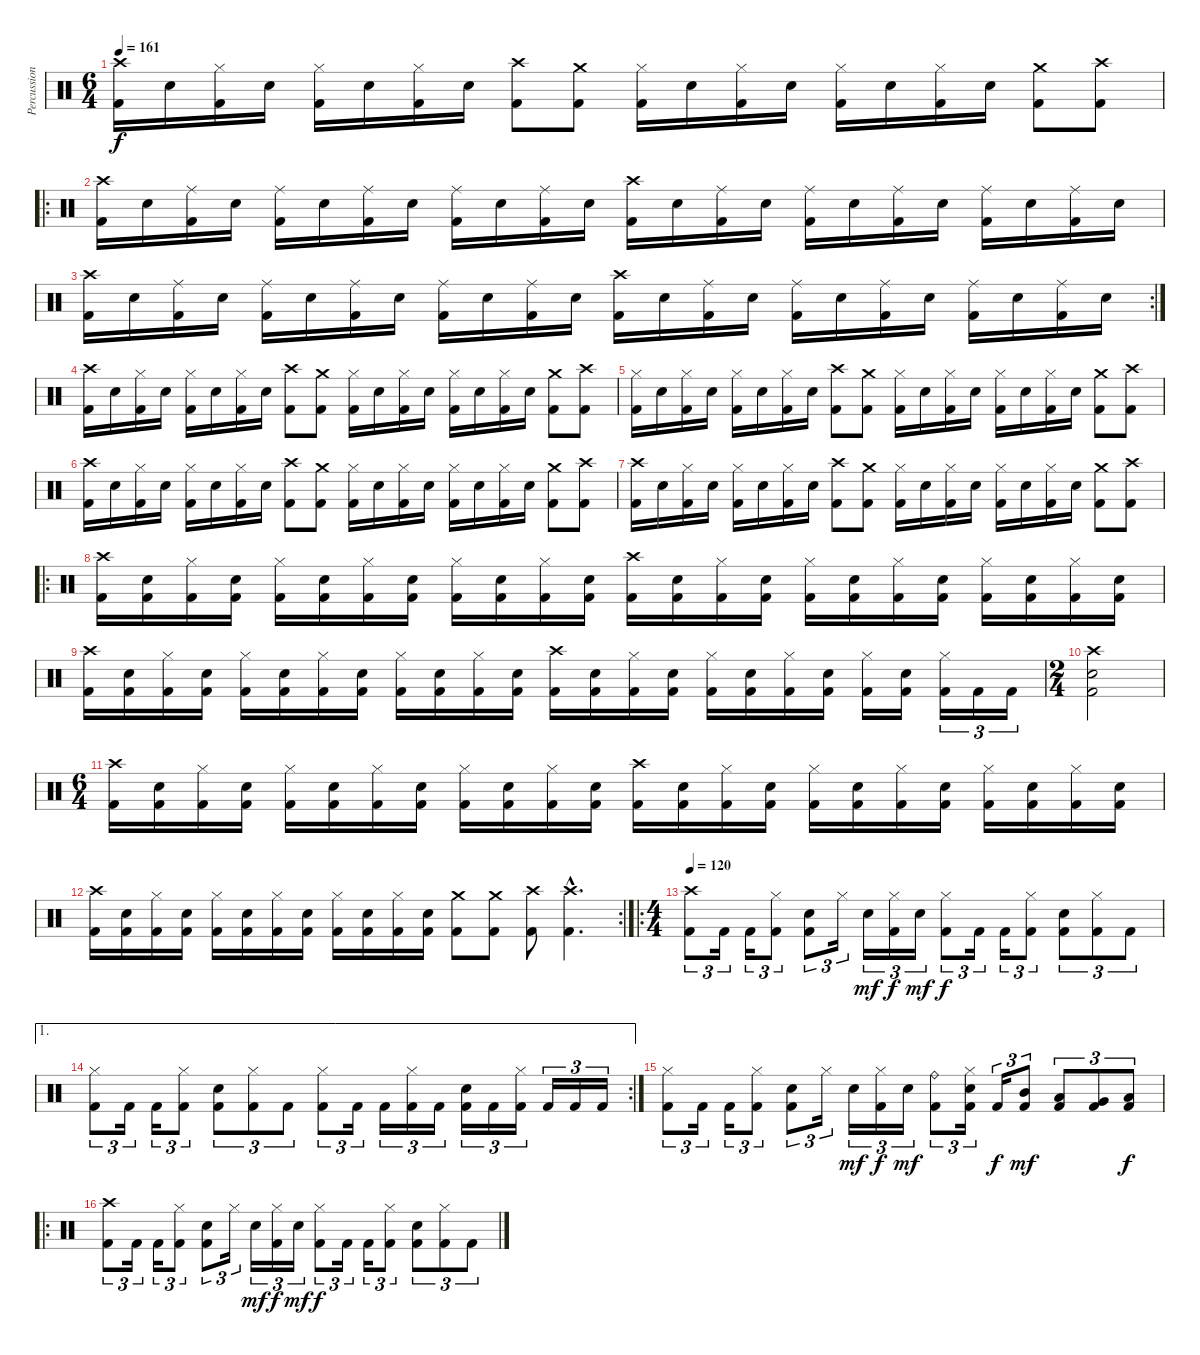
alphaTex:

\track ("Percussion" "Percussion") {instrument percussion}
\staff {score}
\articulation defaults
\ts (6 4)
\tempo 161
\clef neutral
\ks c
("Crash high (hit)" "Kick (hit) 2").16{dy f} "Snare (hit) 2".16 ("Hi-Hat (closed)" "Kick (hit) 2").16 "Snare (hit) 2".16 ("Hi-Hat (closed)" "Kick (hit) 2").16 "Snare (hit) 2".16 ("Hi-Hat (closed)" "Kick (hit) 2").16 "Snare (hit) 2".16 ("Crash high (hit)" "Kick (hit) 2").8 ("Crash medium (hit)" "Kick (hit) 2").8 ("Hi-Hat (closed)" "Kick (hit) 2").16 "Snare (hit) 2".16 ("Hi-Hat (closed)" "Kick (hit) 2").16 "Snare (hit) 2".16 ("Hi-Hat (closed)" "Kick (hit) 2").16 "Snare (hit) 2".16 ("Hi-Hat (closed)" "Kick (hit) 2").16 "Snare (hit) 2".16 ("Crash medium (hit)" "Kick (hit) 2").8 ("Crash high (hit)" "Kick (hit) 2").8 |
\ro
("Crash high (hit)" "Kick (hit) 2").16 "Snare (hit) 2".16 ("Ride (middle)" "Kick (hit) 2").16 "Snare (hit) 2".16 ("Ride (middle)" "Kick (hit) 2").16 "Snare (hit) 2".16 ("Ride (middle)" "Kick (hit) 2").16 "Snare (hit) 2".16 ("Ride (middle)" "Kick (hit) 2").16 "Snare (hit) 2".16 ("Ride (middle)" "Kick (hit) 2").16 "Snare (hit) 2".16 ("Crash high (hit)" "Kick (hit) 2").16 "Snare (hit) 2".16 ("Ride (middle)" "Kick (hit) 2").16 "Snare (hit) 2".16 ("Ride (middle)" "Kick (hit) 2").16 "Snare (hit) 2".16 ("Ride (middle)" "Kick (hit) 2").16 "Snare (hit) 2".16 ("Ride (middle)" "Kick (hit) 2").16 "Snare (hit) 2".16 ("Ride (middle)" "Kick (hit) 2").16 "Snare (hit) 2".16 |
\rc 2
("Crash high (hit)" "Kick (hit) 2").16 "Snare (hit) 2".16 ("Ride (middle)" "Kick (hit) 2").16 "Snare (hit) 2".16 ("Ride (middle)" "Kick (hit) 2").16 "Snare (hit) 2".16 ("Ride (middle)" "Kick (hit) 2").16 "Snare (hit) 2".16 ("Ride (middle)" "Kick (hit) 2").16 "Snare (hit) 2".16 ("Ride (middle)" "Kick (hit) 2").16 "Snare (hit) 2".16 ("Crash high (hit)" "Kick (hit) 2").16 "Snare (hit) 2".16 ("Ride (middle)" "Kick (hit) 2").16 "Snare (hit) 2".16 ("Ride (middle)" "Kick (hit) 2").16 "Snare (hit) 2".16 ("Ride (middle)" "Kick (hit) 2").16 "Snare (hit) 2".16 ("Ride (middle)" "Kick (hit) 2").16 "Snare (hit) 2".16 ("Ride (middle)" "Kick (hit) 2").16 "Snare (hit) 2".16 |
("Crash high (hit)" "Kick (hit) 2").16 "Snare (hit) 2".16 ("Hi-Hat (closed)" "Kick (hit) 2").16 "Snare (hit) 2".16 ("Hi-Hat (closed)" "Kick (hit) 2").16 "Snare (hit) 2".16 ("Hi-Hat (closed)" "Kick (hit) 2").16 "Snare (hit) 2".16 ("Crash high (hit)" "Kick (hit) 2").8 ("Crash medium (hit)" "Kick (hit) 2").8 ("Hi-Hat (closed)" "Kick (hit) 2").16 "Snare (hit) 2".16 ("Hi-Hat (closed)" "Kick (hit) 2").16 "Snare (hit) 2".16 ("Hi-Hat (closed)" "Kick (hit) 2").16 "Snare (hit) 2".16 ("Hi-Hat (closed)" "Kick (hit) 2").16 "Snare (hit) 2".16 ("Crash medium (hit)" "Kick (hit) 2").8 ("Crash high (hit)" "Kick (hit) 2").8 |
("Hi-Hat (closed)" "Kick (hit) 2").16 "Snare (hit) 2".16 ("Hi-Hat (closed)" "Kick (hit) 2").16 "Snare (hit) 2".16 ("Hi-Hat (closed)" "Kick (hit) 2").16 "Snare (hit) 2".16 ("Hi-Hat (closed)" "Kick (hit) 2").16 "Snare (hit) 2".16 ("Crash high (hit)" "Kick (hit) 2").8 ("Crash medium (hit)" "Kick (hit) 2").8 ("Hi-Hat (closed)" "Kick (hit) 2").16 "Snare (hit) 2".16 ("Hi-Hat (closed)" "Kick (hit) 2").16 "Snare (hit) 2".16 ("Hi-Hat (closed)" "Kick (hit) 2").16 "Snare (hit) 2".16 ("Hi-Hat (closed)" "Kick (hit) 2").16 "Snare (hit) 2".16 ("Crash medium (hit)" "Kick (hit) 2").8 ("Crash high (hit)" "Kick (hit) 2").8 |
("Crash high (hit)" "Kick (hit) 2").16 "Snare (hit) 2".16 ("Hi-Hat (closed)" "Kick (hit) 2").16 "Snare (hit) 2".16 ("Hi-Hat (closed)" "Kick (hit) 2").16 "Snare (hit) 2".16 ("Hi-Hat (closed)" "Kick (hit) 2").16 "Snare (hit) 2".16 ("Crash high (hit)" "Kick (hit) 2").8 ("Crash medium (hit)" "Kick (hit) 2").8 ("Hi-Hat (closed)" "Kick (hit) 2").16 "Snare (hit) 2".16 ("Hi-Hat (closed)" "Kick (hit) 2").16 "Snare (hit) 2".16 ("Hi-Hat (closed)" "Kick (hit) 2").16 "Snare (hit) 2".16 ("Hi-Hat (closed)" "Kick (hit) 2").16 "Snare (hit) 2".16 ("Crash medium (hit)" "Kick (hit) 2").8 ("Crash high (hit)" "Kick (hit) 2").8 |
("Crash high (hit)" "Kick (hit) 2").16 "Snare (hit) 2".16 ("Hi-Hat (closed)" "Kick (hit) 2").16 "Snare (hit) 2".16 ("Hi-Hat (closed)" "Kick (hit) 2").16 "Snare (hit) 2".16 ("Hi-Hat (closed)" "Kick (hit) 2").16 "Snare (hit) 2".16 ("Crash high (hit)" "Kick (hit) 2").8 ("Crash medium (hit)" "Kick (hit) 2").8 ("Hi-Hat (closed)" "Kick (hit) 2").16 "Snare (hit) 2".16 ("Hi-Hat (closed)" "Kick (hit) 2").16 "Snare (hit) 2".16 ("Hi-Hat (closed)" "Kick (hit) 2").16 "Snare (hit) 2".16 ("Hi-Hat (closed)" "Kick (hit) 2").16 "Snare (hit) 2".16 ("Crash medium (hit)" "Kick (hit) 2").8 ("Crash high (hit)" "Kick (hit) 2").8 |
\ro
("Crash high (hit)" "Kick (hit) 2").16 ("Snare (hit) 2" "Kick (hit) 2").16 ("Hi-Hat (closed)" "Kick (hit) 2").16 ("Snare (hit) 2" "Kick (hit) 2").16 ("Hi-Hat (closed)" "Kick (hit) 2").16 ("Snare (hit) 2" "Kick (hit) 2").16 ("Hi-Hat (closed)" "Kick (hit) 2").16 ("Snare (hit) 2" "Kick (hit) 2").16 ("Hi-Hat (closed)" "Kick (hit) 2").16 ("Snare (hit) 2" "Kick (hit) 2").16 ("Hi-Hat (closed)" "Kick (hit) 2").16 ("Snare (hit) 2" "Kick (hit) 2").16 ("Crash high (hit)" "Kick (hit) 2").16 ("Snare (hit) 2" "Kick (hit) 2").16 ("Hi-Hat (closed)" "Kick (hit) 2").16 ("Snare (hit) 2" "Kick (hit) 2").16 ("Hi-Hat (closed)" "Kick (hit) 2").16 ("Snare (hit) 2" "Kick (hit) 2").16 ("Hi-Hat (closed)" "Kick (hit) 2").16 ("Snare (hit) 2" "Kick (hit) 2").16 ("Hi-Hat (closed)" "Kick (hit) 2").16 ("Snare (hit) 2" "Kick (hit) 2").16 ("Hi-Hat (closed)" "Kick (hit) 2").16 ("Snare (hit) 2" "Kick (hit) 2").16 |
("Crash high (hit)" "Kick (hit) 2").16 ("Snare (hit) 2" "Kick (hit) 2").16 ("Hi-Hat (closed)" "Kick (hit) 2").16 ("Snare (hit) 2" "Kick (hit) 2").16 ("Hi-Hat (closed)" "Kick (hit) 2").16 ("Snare (hit) 2" "Kick (hit) 2").16 ("Hi-Hat (closed)" "Kick (hit) 2").16 ("Snare (hit) 2" "Kick (hit) 2").16 ("Hi-Hat (closed)" "Kick (hit) 2").16 ("Snare (hit) 2" "Kick (hit) 2").16 ("Hi-Hat (closed)" "Kick (hit) 2").16 ("Snare (hit) 2" "Kick (hit) 2").16 ("Crash high (hit)" "Kick (hit) 2").16 ("Snare (hit) 2" "Kick (hit) 2").16 ("Hi-Hat (closed)" "Kick (hit) 2").16 ("Snare (hit) 2" "Kick (hit) 2").16 ("Hi-Hat (closed)" "Kick (hit) 2").16 ("Snare (hit) 2" "Kick (hit) 2").16 ("Hi-Hat (closed)" "Kick (hit) 2").16 ("Snare (hit) 2" "Kick (hit) 2").16 ("Hi-Hat (closed)" "Kick (hit) 2").16 ("Snare (hit) 2" "Kick (hit) 2").16 ("Hi-Hat (closed)" "Kick (hit) 2").16{tu (3 2)} "Kick (hit) 2".16{tu (3 2)} "Kick (hit) 2".16{tu (3 2)} |
\ts (2 4)
("Crash high (hit)" "Snare (hit) 2" "Kick (hit) 2").2 |
\ts (6 4)
("Crash high (hit)" "Kick (hit) 2").16 ("Snare (hit) 2" "Kick (hit) 2").16 ("Hi-Hat (closed)" "Kick (hit) 2").16 ("Snare (hit) 2" "Kick (hit) 2").16 ("Hi-Hat (closed)" "Kick (hit) 2").16 ("Snare (hit) 2" "Kick (hit) 2").16 ("Hi-Hat (closed)" "Kick (hit) 2").16 ("Snare (hit) 2" "Kick (hit) 2").16 ("Hi-Hat (closed)" "Kick (hit) 2").16 ("Snare (hit) 2" "Kick (hit) 2").16 ("Hi-Hat (closed)" "Kick (hit) 2").16 ("Snare (hit) 2" "Kick (hit) 2").16 ("Crash high (hit)" "Kick (hit) 2").16 ("Snare (hit) 2" "Kick (hit) 2").16 ("Hi-Hat (closed)" "Kick (hit) 2").16 ("Snare (hit) 2" "Kick (hit) 2").16 ("Hi-Hat (closed)" "Kick (hit) 2").16 ("Snare (hit) 2" "Kick (hit) 2").16 ("Hi-Hat (closed)" "Kick (hit) 2").16 ("Snare (hit) 2" "Kick (hit) 2").16 ("Hi-Hat (closed)" "Kick (hit) 2").16 ("Snare (hit) 2" "Kick (hit) 2").16 ("Hi-Hat (closed)" "Kick (hit) 2").16 ("Snare (hit) 2" "Kick (hit) 2").16 |
\rc 2
("Crash high (hit)" "Kick (hit) 2").16 ("Snare (hit) 2" "Kick (hit) 2").16 ("Hi-Hat (closed)" "Kick (hit) 2").16 ("Snare (hit) 2" "Kick (hit) 2").16 ("Hi-Hat (closed)" "Kick (hit) 2").16 ("Snare (hit) 2" "Kick (hit) 2").16 ("Hi-Hat (closed)" "Kick (hit) 2").16 ("Snare (hit) 2" "Kick (hit) 2").16 ("Hi-Hat (closed)" "Kick (hit) 2").16 ("Snare (hit) 2" "Kick (hit) 2").16 ("Hi-Hat (closed)" "Kick (hit) 2").16 ("Snare (hit) 2" "Kick (hit) 2").16 ("Crash medium (hit)" "Kick (hit) 2").8 ("Crash medium (hit)" "Kick (hit) 2").8 ("Crash high (hit)" "Kick (hit) 2").8 ("Crash high (hit)"{hac} "Kick (hit) 2"{hac}).4{d} |
\ro
\ts (4 4)
\tempo 120
("Crash high (hit)" "Kick (hit) 2").8{tu (3 2)} "Kick (hit) 2".16{tu (3 2)} "Kick (hit) 2".16{tu (3 2)} ("Hi-Hat (closed)" "Kick (hit) 2").8{tu (3 2)} ("Snare (hit) 2" "Kick (hit) 2").8{tu (3 2)} "Hi-Hat (closed)".16{tu (3 2)} "Snare (hit) 2".16{tu (3 2) dy mf} ("Hi-Hat (closed)" "Kick (hit) 2").16{tu (3 2) dy f} "Snare (hit) 2".16{tu (3 2) dy mf} ("Hi-Hat (closed)" "Kick (hit) 2").8{tu (3 2) dy f} "Kick (hit) 2".16{tu (3 2)} "Kick (hit) 2".16{tu (3 2)} ("Hi-Hat (closed)" "Kick (hit) 2").8{tu (3 2)} ("Snare (hit) 2" "Kick (hit) 2").8{tu (3 2)} ("Hi-Hat (closed)" "Kick (hit) 2").8{tu (3 2)} "Kick (hit) 2".8{tu (3 2)} |
\ae 1
\rc 2
("Hi-Hat (closed)" "Kick (hit) 2").8{tu (3 2)} "Kick (hit) 2".16{tu (3 2)} "Kick (hit) 2".16{tu (3 2)} ("Hi-Hat (closed)" "Kick (hit) 2").8{tu (3 2)} ("Snare (hit) 2" "Kick (hit) 2").8{tu (3 2)} ("Hi-Hat (closed)" "Kick (hit) 2").8{tu (3 2)} "Kick (hit) 2".8{tu (3 2)} ("Hi-Hat (closed)" "Kick (hit) 2").8{tu (3 2)} "Kick (hit) 2".16{tu (3 2)} "Kick (hit) 2".16{tu (3 2)} ("Hi-Hat (closed)" "Kick (hit) 2").16{tu (3 2)} "Kick (hit) 2".16{tu (3 2)} ("Snare (hit) 2" "Kick (hit) 2").16{tu (3 2)} "Kick (hit) 2".16{tu (3 2)} ("Hi-Hat (closed)" "Kick (hit) 2").16{tu (3 2)} "Kick (hit) 2".16{tu (3 2)} "Kick (hit) 2".16{tu (3 2)} "Kick (hit) 2".16{tu (3 2)} |
("Hi-Hat (closed)" "Kick (hit) 2").8{tu (3 2)} "Kick (hit) 2".16{tu (3 2)} "Kick (hit) 2".16{tu (3 2)} ("Hi-Hat (closed)" "Kick (hit) 2").8{tu (3 2)} ("Snare (hit) 2" "Kick (hit) 2").8{tu (3 2)} "Hi-Hat (closed)".16{tu (3 2)} "Snare (hit) 2".16{tu (3 2) dy mf} ("Hi-Hat (closed)" "Kick (hit) 2").16{tu (3 2) dy f} "Snare (hit) 2".16{tu (3 2) dy mf} ("Ride (bell)" "Kick (hit) 2").8{tu (3 2)} ("Hi-Hat (closed)" "Snare (hit) 2" "Kick (hit) 2").16{tu (3 2)} "Kick (hit) 2".16{tu (3 2) dy f} ("Mid Tom (hit)" "Kick (hit) 2").8{tu (3 2) dy mf} ("Low Tom (hit)" "Kick (hit) 2").8{tu (3 2)} ("Very Low Tom (hit)" "Kick (hit) 2").8{tu (3 2)} ("Low Floor Tom (hit)" "Kick (hit) 2").8{tu (3 2) dy f} |
\ro
("Crash high (hit)" "Kick (hit) 2").8{tu (3 2)} "Kick (hit) 2".16{tu (3 2)} "Kick (hit) 2".16{tu (3 2)} ("Hi-Hat (closed)" "Kick (hit) 2").8{tu (3 2)} ("Snare (hit) 2" "Kick (hit) 2").8{tu (3 2)} "Hi-Hat (closed)".16{tu (3 2)} "Snare (hit) 2".16{tu (3 2) dy mf} ("Hi-Hat (closed)" "Kick (hit) 2").16{tu (3 2) dy f} "Snare (hit) 2".16{tu (3 2) dy mf} ("Hi-Hat (closed)" "Kick (hit) 2").8{tu (3 2) dy f} "Kick (hit) 2".16{tu (3 2)} "Kick (hit) 2".16{tu (3 2)} ("Hi-Hat (closed)" "Kick (hit) 2").8{tu (3 2)} ("Snare (hit) 2" "Kick (hit) 2").8{tu (3 2)} ("Hi-Hat (closed)" "Kick (hit) 2").8{tu (3 2)} "Kick (hit) 2".8{tu (3 2)}
